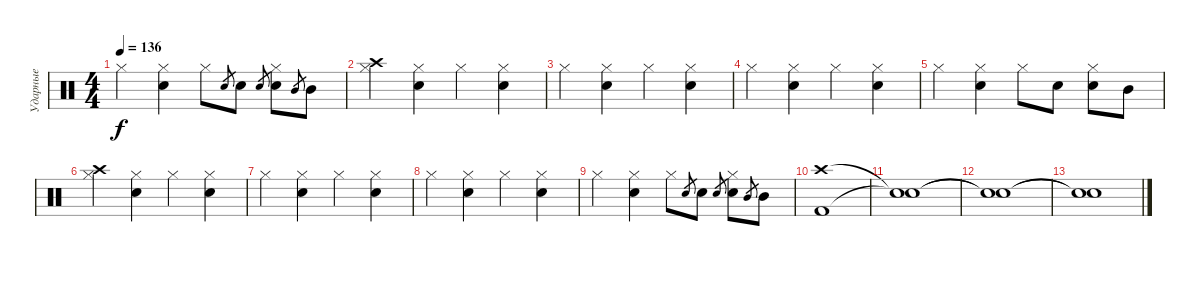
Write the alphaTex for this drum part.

\track ("Ударные" "Ударные") {instrument percussion}
\staff {score}
\articulation defaults
\ts (4 4)
\tempo 136
\clef neutral
\ks c "Hi-Hat (closed)".4{dy f}
("Hi-Hat (closed)" "Snare (hit) 2").4 "Hi-Hat (closed)".8 "Snare (hit) 2".8{gr} "Snare (hit) 2".8 "Snare (hit) 2".8{gr} ("Hi-Hat (closed)" "Snare (hit) 2").8 "Mid Tom (hit)".8{gr} "Mid Tom (hit)".8 |
("Hi-Hat (closed)" "Crash high (hit)").4 ("Hi-Hat (closed)" "Snare (hit) 2").4 "Hi-Hat (closed)".4 ("Hi-Hat (closed)" "Snare (hit) 2").4 |
"Hi-Hat (closed)".4 ("Hi-Hat (closed)" "Snare (hit) 2").4 "Hi-Hat (closed)".4 ("Hi-Hat (closed)" "Snare (hit) 2").4 |
"Hi-Hat (closed)".4 ("Hi-Hat (closed)" "Snare (hit) 2").4 "Hi-Hat (closed)".4 ("Hi-Hat (closed)" "Snare (hit) 2").4 |
"Hi-Hat (closed)".4 ("Hi-Hat (closed)" "Snare (hit) 2").4 "Hi-Hat (closed)".8 "Snare (hit) 2".8 ("Hi-Hat (closed)" "Snare (hit) 2").8 "Mid Tom (hit)".8 |
("Hi-Hat (closed)" "Crash high (hit)").4 ("Hi-Hat (closed)" "Snare (hit) 2").4 "Hi-Hat (closed)".4 ("Hi-Hat (closed)" "Snare (hit) 2").4 |
"Hi-Hat (closed)".4 ("Hi-Hat (closed)" "Snare (hit) 2").4 "Hi-Hat (closed)".4 ("Hi-Hat (closed)" "Snare (hit) 2").4 |
"Hi-Hat (closed)".4 ("Hi-Hat (closed)" "Snare (hit) 2").4 "Hi-Hat (closed)".4 ("Hi-Hat (closed)" "Snare (hit) 2").4 |
"Hi-Hat (closed)".4 ("Hi-Hat (closed)" "Snare (hit) 2").4 "Hi-Hat (closed)".8 "Snare (hit) 2".8{gr} "Snare (hit) 2".8 "Snare (hit) 2".8{gr} ("Hi-Hat (closed)" "Snare (hit) 2").8 "Mid Tom (hit)".8{gr} "Mid Tom (hit)".8 |
("Kick (hit) 2" "Crash high (hit)").1 |
("Snare (hit)"{t} "Snare (hit)"{t}).1 |
("Snare (hit)"{t} "Snare (hit)"{t}).1 |
("Snare (hit)"{t} "Snare (hit)"{t}).1
